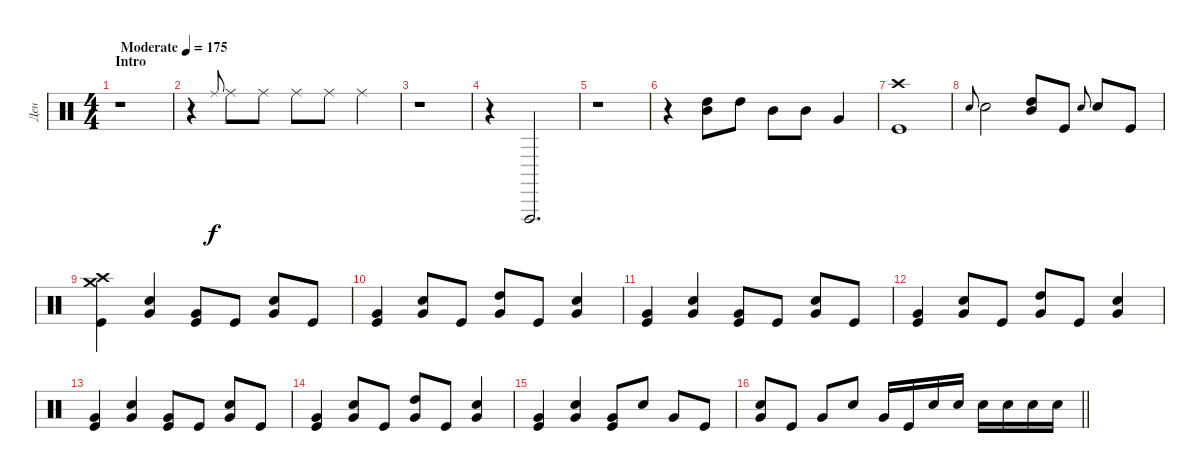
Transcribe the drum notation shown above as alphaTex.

\track ("Ден" "Ден") {instrument percussion}
\staff {score}
\articulation defaults
\ts (4 4)
\section ("" "Intro")
\tempo (175 "Moderate")
\clef neutral
\ks c
r.1{dy f} |
r.4 "Ride (middle)".8{gr onbeat} "Ride (middle)".8 "Ride (middle)".8 "Ride (middle)".8 "Ride (middle)".8 "Ride (middle)".4 |
r.1 |
r.4 "Vibraslap (hit)".2{d} |
r.1 |
r.4 ("High Tom (hit)" "Mid Tom (hit)").8{bu 480} "High Tom (hit)".8 "Mid Tom (hit)".8 "Mid Tom (hit)".8 "Very Low Tom (hit)".4 |
("Crash high (hit)" "Kick (hit)").1 |
"Snare (hit) 2".8{gr onbeat} "Snare (hit) 2".2 ("High Tom (hit)" "Mid Tom (hit)").8{bu 480} "Kick (hit)".8 "Snare (hit) 2".8{gr onbeat} "Snare (hit) 2".8 "Kick (hit)".8 |
("Crash high (hit)" "Crash medium (hit)" "Kick (hit)").4 ("Snare (hit) 2" "Very Low Tom (hit)").4 ("Very Low Tom (hit)" "Kick (hit)").8 "Kick (hit)".8 ("Snare (hit) 2" "Very Low Tom (hit)").8 "Kick (hit)".8 |
("Very Low Tom (hit)" "Kick (hit)").4 ("Snare (hit) 2" "Very Low Tom (hit)").8 "Kick (hit)".8 ("High Tom (hit)" "Very Low Tom (hit)").8{bu 480} "Kick (hit)".8 ("Snare (hit) 2" "Very Low Tom (hit)").4 |
("Very Low Tom (hit)" "Kick (hit)").4 ("Snare (hit) 2" "Very Low Tom (hit)").4 ("Very Low Tom (hit)" "Kick (hit)").8 "Kick (hit)".8 ("Snare (hit) 2" "Very Low Tom (hit)").8 "Kick (hit)".8 |
("Very Low Tom (hit)" "Kick (hit)").4 ("Snare (hit) 2" "Very Low Tom (hit)").8 "Kick (hit)".8 ("High Tom (hit)" "Very Low Tom (hit)").8{bu 480} "Kick (hit)".8 ("Snare (hit) 2" "Very Low Tom (hit)").4 |
("Very Low Tom (hit)" "Kick (hit)").4 ("Snare (hit) 2" "Very Low Tom (hit)").4 ("Very Low Tom (hit)" "Kick (hit)").8 "Kick (hit)".8 ("Snare (hit) 2" "Very Low Tom (hit)").8 "Kick (hit)".8 |
("Very Low Tom (hit)" "Kick (hit)").4 ("Snare (hit) 2" "Very Low Tom (hit)").8 "Kick (hit)".8 ("High Tom (hit)" "Very Low Tom (hit)").8{bu 480} "Kick (hit)".8 ("Snare (hit) 2" "Very Low Tom (hit)").4 |
("Very Low Tom (hit)" "Kick (hit)").4 ("Snare (hit) 2" "Very Low Tom (hit)").4 ("Very Low Tom (hit)" "Kick (hit)").8 "Snare (hit) 2".8 "Very Low Tom (hit)".8 "Kick (hit)".8 |
\barLineRight lightlight
("Snare (hit) 2" "Very Low Tom (hit)").8 "Kick (hit)".8 "Very Low Tom (hit)".8 "Snare (hit) 2".8 "Very Low Tom (hit)".16 "Kick (hit)".16 "Snare (hit) 2".16 "Snare (hit) 2".16 "Snare (hit) 2".16 "Snare (hit) 2".16 "Snare (hit) 2".16 "Snare (hit) 2".16
